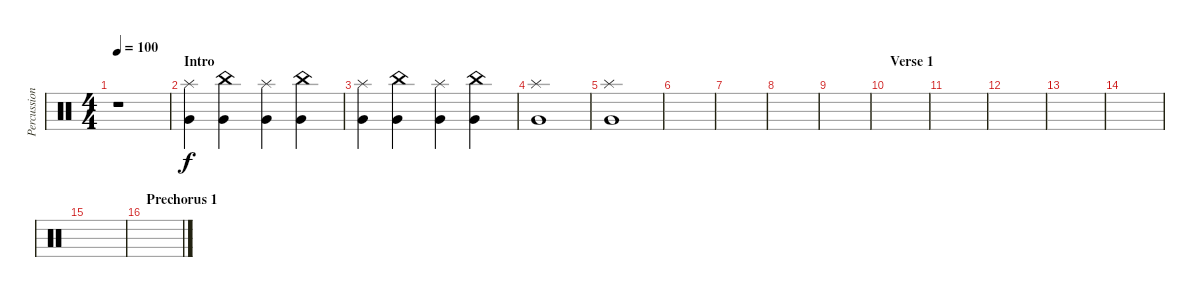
\track ("Percussions" "Percussion") {instrument percussion}
\staff {score}
\articulation defaults
\ts (4 4)
\tempo 100
\clef neutral
\ks c
r.1{dy f} |
\section ("" "Intro")
("Splash (hit)" "Very Low Tom (hit)").4 ("China (hit)" "Very Low Tom (hit)").4 ("Splash (hit)" "Very Low Tom (hit)").4 ("China (hit)" "Very Low Tom (hit)").4 |
("Splash (hit)" "Very Low Tom (hit)").4 ("China (hit)" "Very Low Tom (hit)").4 ("Splash (hit)" "Very Low Tom (hit)").4 ("China (hit)" "Very Low Tom (hit)").4 |
("Splash (hit)" "Very Low Tom (hit)").1 |
("Splash (hit)" "Very Low Tom (hit)").1 |
|
|
|
|
\section ("" "Verse 1")
|
|
|
|
|
|
\section ("" "Prechorus 1")
